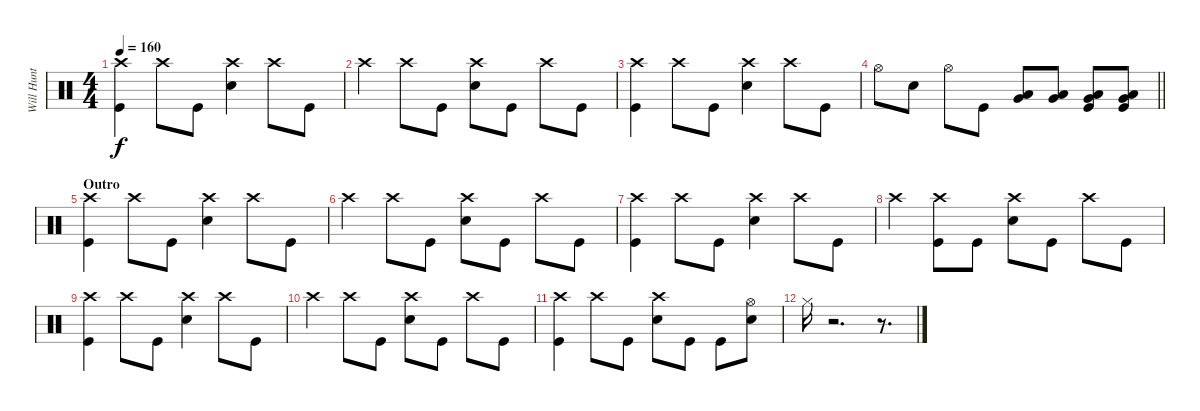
\track ("Will Hunt" "Will Hunt") {instrument percussion}
\staff {score}
\articulation defaults
\ts (4 4)
\tempo 160
\clef neutral
\ks c
("Crash high (hit)" "Kick (hit)").4{dy f} "Crash high (hit)".8 "Kick (hit)".8 ("Crash high (hit)" "Snare (hit) 2").4 "Crash high (hit)".8 "Kick (hit)".8 |
"Crash high (hit)".4 "Crash high (hit)".8 "Kick (hit)".8 ("Crash high (hit)" "Snare (hit) 2").8 "Kick (hit)".8 "Crash high (hit)".8 "Kick (hit)".8 |
("Crash high (hit)" "Kick (hit)").4 "Crash high (hit)".8 "Kick (hit)".8 ("Crash high (hit)" "Snare (hit) 2").4 "Crash high (hit)".8 "Kick (hit)".8 |
\barLineRight lightlight "Hi-Hat (open)".8 "Snare (hit) 2".8 "Hi-Hat (open)".8 "Kick (hit)".8
("Very Low Tom (hit)" "Low Floor Tom (hit)").8 ("Very Low Tom (hit)" "Low Floor Tom (hit)").8 ("Very Low Tom (hit)" "Low Floor Tom (hit)" "Kick (hit)").8 ("Very Low Tom (hit)" "Low Floor Tom (hit)" "Kick (hit)").8 |
\section ("" "Outro")
("Crash high (hit)" "Kick (hit)").4 "Crash high (hit)".8 "Kick (hit)".8 ("Crash high (hit)" "Snare (hit) 2").4 "Crash high (hit)".8 "Kick (hit)".8 |
"Crash high (hit)".4 "Crash high (hit)".8 "Kick (hit)".8 ("Crash high (hit)" "Snare (hit) 2").8 "Kick (hit)".8 "Crash high (hit)".8 "Kick (hit)".8 |
("Crash high (hit)" "Kick (hit)").4 "Crash high (hit)".8 "Kick (hit)".8 ("Crash high (hit)" "Snare (hit) 2").4 "Crash high (hit)".8 "Kick (hit)".8 |
"Crash high (hit)".4 ("Crash high (hit)" "Kick (hit)").8 "Kick (hit)".8 ("Crash high (hit)" "Snare (hit) 2").8 "Kick (hit)".8 "Crash high (hit)".8 "Kick (hit)".8 |
("Crash high (hit)" "Kick (hit)").4 "Crash high (hit)".8 "Kick (hit)".8 ("Crash high (hit)" "Snare (hit) 2").4 "Crash high (hit)".8 "Kick (hit)".8 |
"Crash high (hit)".4 "Crash high (hit)".8 "Kick (hit)".8 ("Crash high (hit)" "Snare (hit) 2").8 "Kick (hit)".8 "Crash high (hit)".8 "Kick (hit)".8 |
("Crash high (hit)" "Kick (hit)").4 "Crash high (hit)".8 "Kick (hit)".8 ("Crash high (hit)" "Snare (hit) 2").8 "Kick (hit)".8 "Kick (hit)".8 ("Hi-Hat (open)" "Snare (hit) 2").8 |
"Hi-Hat (closed)".16 r.2{d} r.8{d}
